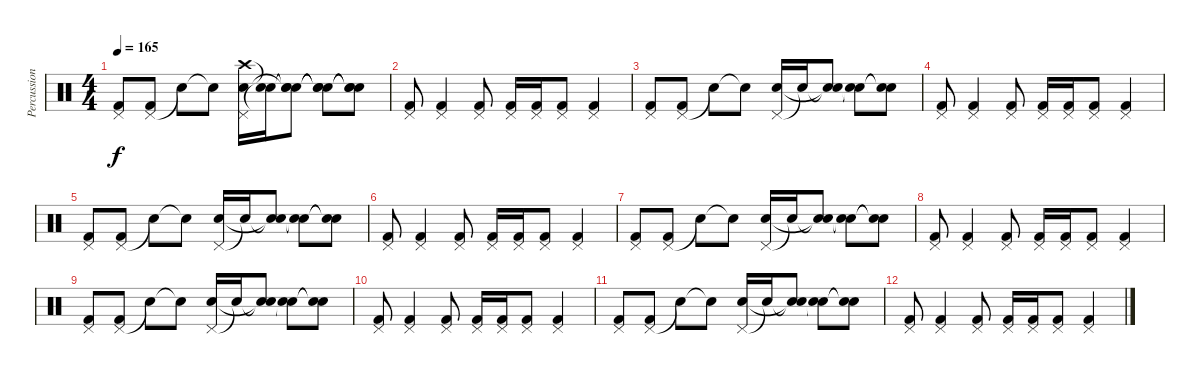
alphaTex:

\track ("Percussion" "Percussion") {instrument percussion}
\staff {score}
\articulation defaults
\ts (4 4)
\tempo 165
\clef neutral
\ks c
("Pedal Hi-Hat (hit)" "Kick (hit) 2").8{dy f} ("Pedal Hi-Hat (hit)" "Kick (hit) 2").8 "Snare (hit)"{t}.8 "Snare (hit)"{t}.8 ("Pedal Hi-Hat (hit)" "Crash high (hit)" "Snare (hit) 2").16 ("Snare (hit)"{t} "Snare (hit)"{t}).16 ("Snare (hit)"{t} "Snare (hit)"{t} "Snare (hit)"{t}).8 ("Snare (hit)"{t} "Snare (hit)"{t} "Snare (hit)"{t}).8 ("Snare (hit)"{t} "Snare (hit)"{t} "Snare (hit)"{t}).8 |
("Pedal Hi-Hat (hit)" "Kick (hit) 2").8 ("Pedal Hi-Hat (hit)" "Kick (hit) 2").4 ("Pedal Hi-Hat (hit)" "Kick (hit) 2").8 ("Pedal Hi-Hat (hit)" "Kick (hit) 2").16 ("Pedal Hi-Hat (hit)" "Kick (hit) 2").16 ("Pedal Hi-Hat (hit)" "Kick (hit) 2").8 ("Pedal Hi-Hat (hit)" "Kick (hit) 2").4 |
("Pedal Hi-Hat (hit)" "Kick (hit) 2").8 ("Pedal Hi-Hat (hit)" "Kick (hit) 2").8 "Snare (hit)"{t}.8 "Snare (hit)"{t}.8 ("Pedal Hi-Hat (hit)" "Snare (hit) 2").16 "Snare (hit)"{t}.16 ("Snare (hit)"{t} "Snare (hit)"{t}).8 ("Snare (hit)"{t} "Snare (hit)"{t}).8 ("Snare (hit)"{t} "Snare (hit)"{t}).8 |
("Pedal Hi-Hat (hit)" "Kick (hit) 2").8 ("Pedal Hi-Hat (hit)" "Kick (hit) 2").4 ("Pedal Hi-Hat (hit)" "Kick (hit) 2").8 ("Pedal Hi-Hat (hit)" "Kick (hit) 2").16 ("Pedal Hi-Hat (hit)" "Kick (hit) 2").16 ("Pedal Hi-Hat (hit)" "Kick (hit) 2").8 ("Pedal Hi-Hat (hit)" "Kick (hit) 2").4 |
("Pedal Hi-Hat (hit)" "Kick (hit) 2").8 ("Pedal Hi-Hat (hit)" "Kick (hit) 2").8 "Snare (hit)"{t}.8 "Snare (hit)"{t}.8 ("Pedal Hi-Hat (hit)" "Snare (hit) 2").16 "Snare (hit)"{t}.16 ("Snare (hit)"{t} "Snare (hit)"{t}).8 ("Snare (hit)"{t} "Snare (hit)"{t}).8 ("Snare (hit)"{t} "Snare (hit)"{t}).8 |
("Pedal Hi-Hat (hit)" "Kick (hit) 2").8 ("Pedal Hi-Hat (hit)" "Kick (hit) 2").4 ("Pedal Hi-Hat (hit)" "Kick (hit) 2").8 ("Pedal Hi-Hat (hit)" "Kick (hit) 2").16 ("Pedal Hi-Hat (hit)" "Kick (hit) 2").16 ("Pedal Hi-Hat (hit)" "Kick (hit) 2").8 ("Pedal Hi-Hat (hit)" "Kick (hit) 2").4 |
("Pedal Hi-Hat (hit)" "Kick (hit) 2").8 ("Pedal Hi-Hat (hit)" "Kick (hit) 2").8 "Snare (hit)"{t}.8 "Snare (hit)"{t}.8 ("Pedal Hi-Hat (hit)" "Snare (hit) 2").16 "Snare (hit)"{t}.16 ("Snare (hit)"{t} "Snare (hit)"{t}).8 ("Snare (hit)"{t} "Snare (hit)"{t}).8 ("Snare (hit)"{t} "Snare (hit)"{t}).8 |
("Pedal Hi-Hat (hit)" "Kick (hit) 2").8 ("Pedal Hi-Hat (hit)" "Kick (hit) 2").4 ("Pedal Hi-Hat (hit)" "Kick (hit) 2").8 ("Pedal Hi-Hat (hit)" "Kick (hit) 2").16 ("Pedal Hi-Hat (hit)" "Kick (hit) 2").16 ("Pedal Hi-Hat (hit)" "Kick (hit) 2").8 ("Pedal Hi-Hat (hit)" "Kick (hit) 2").4 |
("Pedal Hi-Hat (hit)" "Kick (hit) 2").8 ("Pedal Hi-Hat (hit)" "Kick (hit) 2").8 "Snare (hit)"{t}.8 "Snare (hit)"{t}.8 ("Pedal Hi-Hat (hit)" "Snare (hit) 2").16 "Snare (hit)"{t}.16 ("Snare (hit)"{t} "Snare (hit)"{t}).8 ("Snare (hit)"{t} "Snare (hit)"{t}).8 ("Snare (hit)"{t} "Snare (hit)"{t}).8 |
("Pedal Hi-Hat (hit)" "Kick (hit) 2").8 ("Pedal Hi-Hat (hit)" "Kick (hit) 2").4 ("Pedal Hi-Hat (hit)" "Kick (hit) 2").8 ("Pedal Hi-Hat (hit)" "Kick (hit) 2").16 ("Pedal Hi-Hat (hit)" "Kick (hit) 2").16 ("Pedal Hi-Hat (hit)" "Kick (hit) 2").8 ("Pedal Hi-Hat (hit)" "Kick (hit) 2").4 |
("Pedal Hi-Hat (hit)" "Kick (hit) 2").8 ("Pedal Hi-Hat (hit)" "Kick (hit) 2").8 "Snare (hit)"{t}.8 "Snare (hit)"{t}.8 ("Pedal Hi-Hat (hit)" "Snare (hit) 2").16 "Snare (hit)"{t}.16 ("Snare (hit)"{t} "Snare (hit)"{t}).8 ("Snare (hit)"{t} "Snare (hit)"{t}).8 ("Snare (hit)"{t} "Snare (hit)"{t}).8 |
("Pedal Hi-Hat (hit)" "Kick (hit) 2").8 ("Pedal Hi-Hat (hit)" "Kick (hit) 2").4 ("Pedal Hi-Hat (hit)" "Kick (hit) 2").8 ("Pedal Hi-Hat (hit)" "Kick (hit) 2").16 ("Pedal Hi-Hat (hit)" "Kick (hit) 2").16 ("Pedal Hi-Hat (hit)" "Kick (hit) 2").8 ("Pedal Hi-Hat (hit)" "Kick (hit) 2").4
